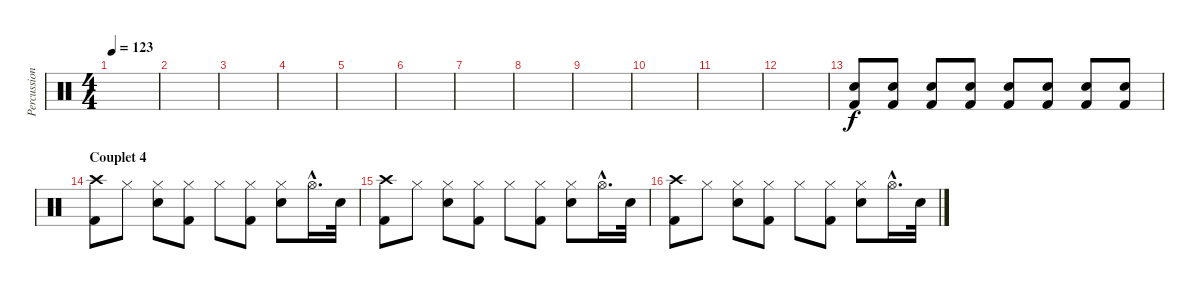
\track ("Percussions" "Percussion") {instrument percussion}
\staff {score}
\articulation defaults
\ts (4 4)
\tempo 123
\clef neutral
\ks c
|
|
|
|
|
|
|
|
|
|
|
|
("Snare (hit) 2" "Kick (hit) 2").8 ("Snare (hit) 2" "Kick (hit) 2").8 ("Snare (hit) 2" "Kick (hit) 2").8 ("Snare (hit) 2" "Kick (hit) 2").8 ("Snare (hit) 2" "Kick (hit) 2").8 ("Snare (hit) 2" "Kick (hit) 2").8 ("Snare (hit) 2" "Kick (hit) 2").8 ("Snare (hit) 2" "Kick (hit) 2").8 |
\section ("" "Couplet 4")
("Crash high (hit)" "Kick (hit) 2").8 "Hi-Hat (closed)".8 ("Hi-Hat (closed)" "Snare (hit) 2").8 ("Hi-Hat (closed)" "Kick (hit) 2").8 "Hi-Hat (closed)".8 ("Hi-Hat (closed)" "Kick (hit) 2").8 ("Hi-Hat (closed)" "Snare (hit) 2").8 "Hi-Hat (open)"{hac}.16{d} "Snare (hit) 2".32 |
("Crash high (hit)" "Kick (hit) 2").8 "Hi-Hat (closed)".8 ("Hi-Hat (closed)" "Snare (hit) 2").8 ("Hi-Hat (closed)" "Kick (hit) 2").8 "Hi-Hat (closed)".8 ("Hi-Hat (closed)" "Kick (hit) 2").8 ("Hi-Hat (closed)" "Snare (hit) 2").8 "Hi-Hat (open)"{hac}.16{d} "Snare (hit) 2".32 |
("Crash high (hit)" "Kick (hit) 2").8 "Hi-Hat (closed)".8 ("Hi-Hat (closed)" "Snare (hit) 2").8 ("Hi-Hat (closed)" "Kick (hit) 2").8 "Hi-Hat (closed)".8 ("Hi-Hat (closed)" "Kick (hit) 2").8 ("Hi-Hat (closed)" "Snare (hit) 2").8 "Hi-Hat (open)"{hac}.16{d} "Snare (hit) 2".32
